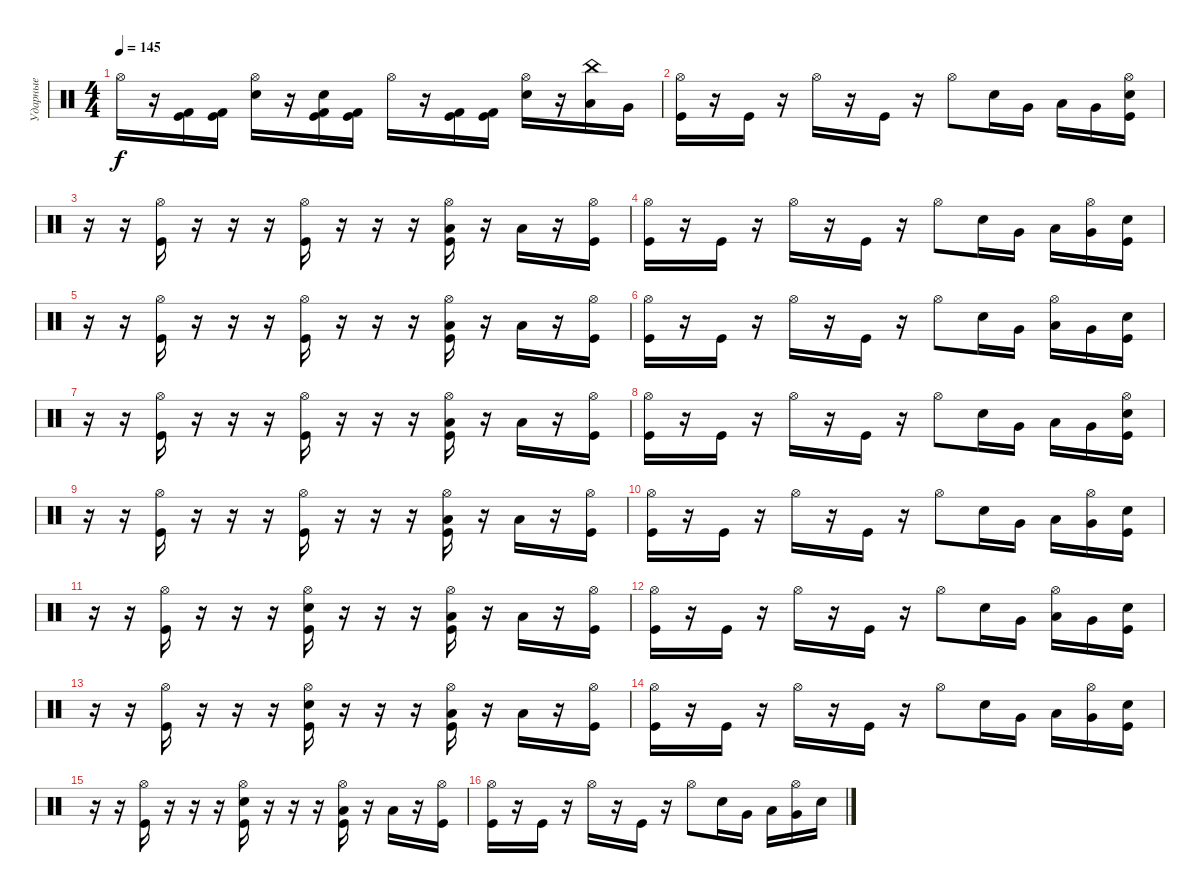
\track ("Ударные" "Ударные") {instrument percussion}
\staff {score}
\articulation defaults
\ts (4 4)
\tempo 145
\clef neutral
\ks c "Hi-Hat (open)".16{dy f}
r.16 ("Kick (hit)" "Kick (hit) 2").16 ("Kick (hit)" "Kick (hit) 2").16 ("Electric Snare (hit)" "Hi-Hat (open)").16 r.16 ("Kick (hit)" "Kick (hit) 2" "Electric Snare (hit)").16 ("Kick (hit)" "Kick (hit) 2").16 "Hi-Hat (open)".16 r.16 ("Kick (hit)" "Kick (hit) 2").16 ("Kick (hit)" "Kick (hit) 2").16 ("Electric Snare (hit)" "Hi-Hat (open)").16 r.16 ("Low Tom (hit)" "China (hit)").16 "Very Low Tom (hit)".16 |
("Kick (hit)" "Hi-Hat (open)").16 r.16 "Kick (hit)".16 r.16 "Hi-Hat (open)".16 r.16 "Kick (hit)".16 r.16 "Hi-Hat (open)".8 "Snare (hit) 2".16 "Very Low Tom (hit)".16 "Low Tom (hit)".16 "Very Low Tom (hit)".16 ("Kick (hit)" "Electric Snare (hit)" "Hi-Hat (open)").16 |
r.16 r.16 ("Kick (hit)" "Hi-Hat (open)").16 r.16 r.16 r.16 ("Kick (hit)" "Hi-Hat (open)").16 r.16 r.16 r.16 ("Kick (hit)" "Low Tom (hit)" "Hi-Hat (open)").16 r.16 "Low Tom (hit)".16 r.16 ("Kick (hit)" "Hi-Hat (open)").16 |
("Kick (hit)" "Hi-Hat (open)").16 r.16 "Kick (hit)".16 r.16 "Hi-Hat (open)".16 r.16 "Kick (hit)".16 r.16 "Hi-Hat (open)".8 "Snare (hit) 2".16 "Very Low Tom (hit)".16 "Low Tom (hit)".16 ("Very Low Tom (hit)" "Hi-Hat (open)").16 ("Kick (hit)" "Electric Snare (hit)").16 |
r.16 r.16 ("Kick (hit)" "Hi-Hat (open)").16 r.16 r.16 r.16 ("Kick (hit)" "Hi-Hat (open)").16 r.16 r.16 r.16 ("Kick (hit)" "Low Tom (hit)" "Hi-Hat (open)").16 r.16 "Low Tom (hit)".16 r.16 ("Kick (hit)" "Hi-Hat (open)").16 |
("Kick (hit)" "Hi-Hat (open)").16 r.16 "Kick (hit)".16 r.16 "Hi-Hat (open)".16 r.16 "Kick (hit)".16 r.16 "Hi-Hat (open)".8 "Snare (hit) 2".16 "Very Low Tom (hit)".16 ("Low Tom (hit)" "Hi-Hat (open)").16 "Very Low Tom (hit)".16 ("Kick (hit)" "Electric Snare (hit)").16 |
r.16 r.16 ("Kick (hit)" "Hi-Hat (open)").16 r.16 r.16 r.16 ("Kick (hit)" "Hi-Hat (open)").16 r.16 r.16 r.16 ("Kick (hit)" "Low Tom (hit)" "Hi-Hat (open)").16 r.16 "Low Tom (hit)".16 r.16 ("Kick (hit)" "Hi-Hat (open)").16 |
("Kick (hit)" "Hi-Hat (open)").16 r.16 "Kick (hit)".16 r.16 "Hi-Hat (open)".16 r.16 "Kick (hit)".16 r.16 "Hi-Hat (open)".8 "Snare (hit) 2".16 "Very Low Tom (hit)".16 "Low Tom (hit)".16 "Very Low Tom (hit)".16 ("Kick (hit)" "Electric Snare (hit)" "Hi-Hat (open)").16 |
r.16 r.16 ("Kick (hit)" "Hi-Hat (open)").16 r.16 r.16 r.16 ("Kick (hit)" "Hi-Hat (open)").16 r.16 r.16 r.16 ("Kick (hit)" "Low Tom (hit)" "Hi-Hat (open)").16 r.16 "Low Tom (hit)".16 r.16 ("Kick (hit)" "Hi-Hat (open)").16 |
("Kick (hit)" "Hi-Hat (open)").16 r.16 "Kick (hit)".16 r.16 "Hi-Hat (open)".16 r.16 "Kick (hit)".16 r.16 "Hi-Hat (open)".8 "Snare (hit) 2".16 "Very Low Tom (hit)".16 "Low Tom (hit)".16 ("Very Low Tom (hit)" "Hi-Hat (open)").16 ("Kick (hit)" "Electric Snare (hit)").16 |
r.16 r.16 ("Kick (hit)" "Hi-Hat (open)").16 r.16 r.16 r.16 ("Kick (hit)" "Snare (hit) 2" "Hi-Hat (open)").16 r.16 r.16 r.16 ("Kick (hit)" "Low Tom (hit)" "Hi-Hat (open)").16 r.16 "Low Tom (hit)".16 r.16 ("Kick (hit)" "Hi-Hat (open)").16 |
("Kick (hit)" "Hi-Hat (open)").16 r.16 "Kick (hit)".16 r.16 "Hi-Hat (open)".16 r.16 "Kick (hit)".16 r.16 "Hi-Hat (open)".8 "Snare (hit) 2".16 "Very Low Tom (hit)".16 ("Low Tom (hit)" "Hi-Hat (open)").16 "Very Low Tom (hit)".16 ("Kick (hit)" "Electric Snare (hit)").16 |
r.16 r.16 ("Kick (hit)" "Hi-Hat (open)").16 r.16 r.16 r.16 ("Kick (hit)" "Snare (hit) 2" "Hi-Hat (open)").16 r.16 r.16 r.16 ("Kick (hit)" "Low Tom (hit)" "Hi-Hat (open)").16 r.16 "Low Tom (hit)".16 r.16 ("Kick (hit)" "Hi-Hat (open)").16 |
("Kick (hit)" "Hi-Hat (open)").16 r.16 "Kick (hit)".16 r.16 "Hi-Hat (open)".16 r.16 "Kick (hit)".16 r.16 "Hi-Hat (open)".8 "Snare (hit) 2".16 "Very Low Tom (hit)".16 "Low Tom (hit)".16 ("Very Low Tom (hit)" "Hi-Hat (open)").16 ("Kick (hit)" "Electric Snare (hit)").16 |
r.16 r.16 ("Kick (hit)" "Hi-Hat (open)").16 r.16 r.16 r.16 ("Kick (hit)" "Snare (hit) 2" "Hi-Hat (open)").16 r.16 r.16 r.16 ("Kick (hit)" "Low Tom (hit)" "Hi-Hat (open)").16 r.16 "Low Tom (hit)".16 r.16 ("Kick (hit)" "Hi-Hat (open)").16 |
("Kick (hit)" "Hi-Hat (open)").16 r.16 "Kick (hit)".16 r.16 "Hi-Hat (open)".16 r.16 "Kick (hit)".16 r.16 "Hi-Hat (open)".8 "Snare (hit) 2".16 "Very Low Tom (hit)".16 "Low Tom (hit)".16 ("Very Low Tom (hit)" "Hi-Hat (open)").16 "Electric Snare (hit)".16
